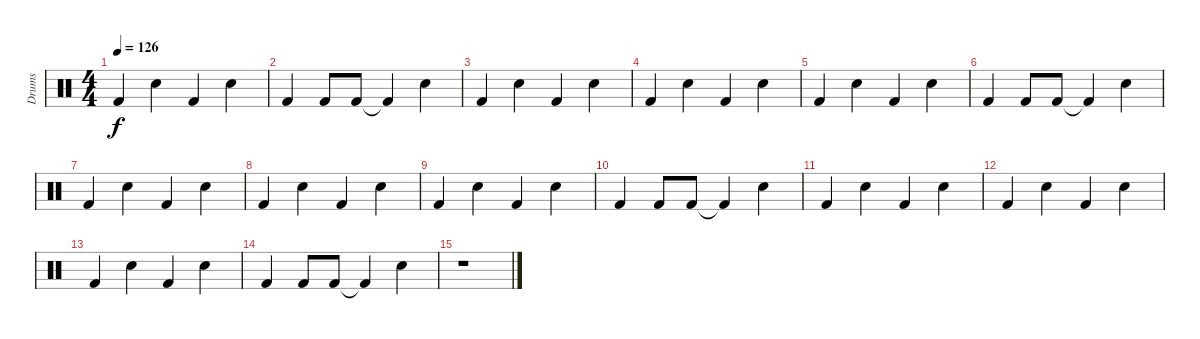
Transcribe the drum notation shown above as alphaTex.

\track ("Drums" "Drums") {instrument percussion}
\staff {score}
\articulation defaults
\ts (4 4)
\tempo 126
\clef neutral
\ks c "Kick (hit) 2".4{dy f} "Electric Snare (hit)".4 "Kick (hit) 2".4 "Electric Snare (hit)".4
|
"Kick (hit) 2".4 "Kick (hit) 2".8 "Kick (hit) 2".8 "Kick (hit) 2"{t}.4 "Electric Snare (hit)".4 |
"Kick (hit) 2".4 "Electric Snare (hit)".4 "Kick (hit) 2".4 "Electric Snare (hit)".4 |
"Kick (hit) 2".4 "Electric Snare (hit)".4 "Kick (hit) 2".4 "Electric Snare (hit)".4 |
"Kick (hit) 2".4 "Electric Snare (hit)".4 "Kick (hit) 2".4 "Electric Snare (hit)".4 |
"Kick (hit) 2".4 "Kick (hit) 2".8 "Kick (hit) 2".8 "Kick (hit) 2"{t}.4 "Electric Snare (hit)".4 |
"Kick (hit) 2".4 "Electric Snare (hit)".4 "Kick (hit) 2".4 "Electric Snare (hit)".4 |
"Kick (hit) 2".4 "Electric Snare (hit)".4 "Kick (hit) 2".4 "Electric Snare (hit)".4 |
"Kick (hit) 2".4 "Electric Snare (hit)".4 "Kick (hit) 2".4 "Electric Snare (hit)".4 |
"Kick (hit) 2".4 "Kick (hit) 2".8 "Kick (hit) 2".8 "Kick (hit) 2"{t}.4 "Electric Snare (hit)".4 |
"Kick (hit) 2".4 "Electric Snare (hit)".4 "Kick (hit) 2".4 "Electric Snare (hit)".4 |
"Kick (hit) 2".4 "Electric Snare (hit)".4 "Kick (hit) 2".4 "Electric Snare (hit)".4 |
"Kick (hit) 2".4 "Electric Snare (hit)".4 "Kick (hit) 2".4 "Electric Snare (hit)".4 |
"Kick (hit) 2".4 "Kick (hit) 2".8 "Kick (hit) 2".8 "Kick (hit) 2"{t}.4 "Electric Snare (hit)".4 |
r.1
